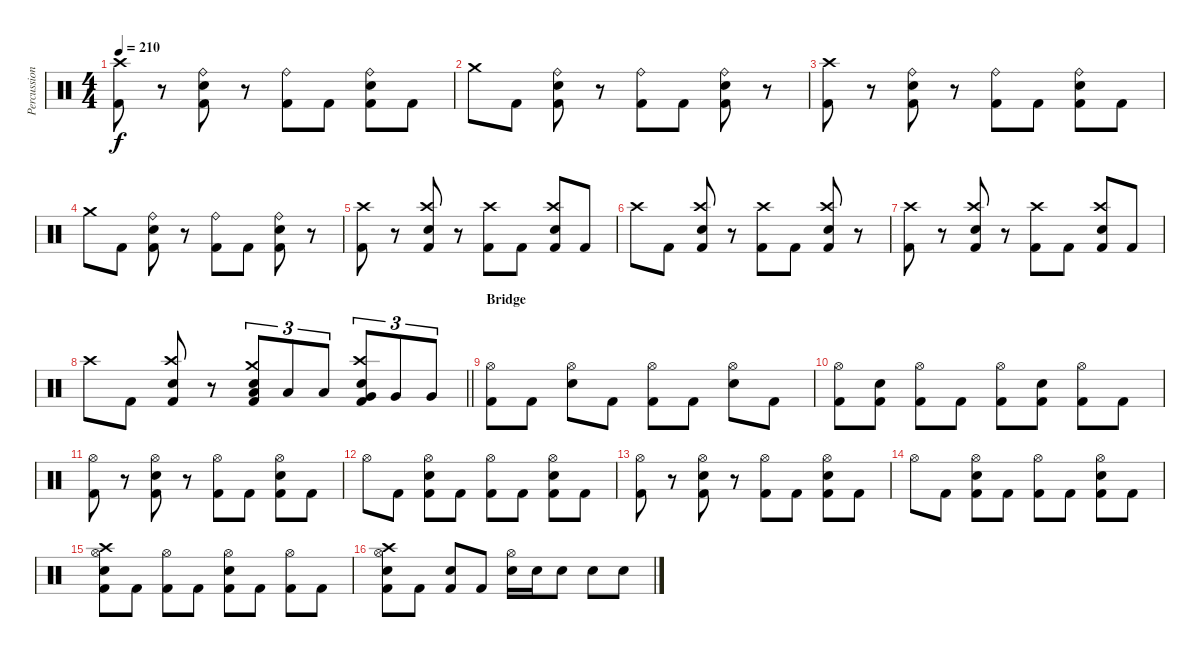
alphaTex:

\track ("Percussion" "Percussion") {instrument percussion}
\staff {score}
\articulation defaults
\ts (4 4)
\tempo 210
\clef neutral
\ks c
("Kick (hit) 2" "Crash high (hit)").8{dy f} r.8 ("Kick (hit) 2" "Electric Snare (hit)" "Ride (bell)").8 r.8 ("Kick (hit) 2" "Ride (bell)").8 "Kick (hit) 2".8 ("Kick (hit) 2" "Electric Snare (hit)" "Ride (bell)").8 "Kick (hit) 2".8 |
"Crash medium (hit)".8 "Kick (hit) 2".8 ("Kick (hit) 2" "Electric Snare (hit)" "Ride (bell)").8 r.8 ("Kick (hit) 2" "Ride (bell)").8 "Kick (hit) 2".8 ("Kick (hit) 2" "Electric Snare (hit)" "Ride (bell)").8 r.8 |
("Kick (hit) 2" "Crash high (hit)").8 r.8 ("Kick (hit) 2" "Electric Snare (hit)" "Ride (bell)").8 r.8 ("Kick (hit) 2" "Ride (bell)").8 "Kick (hit) 2".8 ("Kick (hit) 2" "Electric Snare (hit)" "Ride (bell)").8 "Kick (hit) 2".8 |
"Crash medium (hit)".8 "Kick (hit) 2".8 ("Kick (hit) 2" "Electric Snare (hit)" "Ride (bell)").8 r.8 ("Kick (hit) 2" "Ride (bell)").8 "Kick (hit) 2".8 ("Kick (hit) 2" "Electric Snare (hit)" "Ride (bell)").8 r.8 |
("Kick (hit) 2" "Crash high (hit)").8 r.8 ("Kick (hit) 2" "Electric Snare (hit)" "Crash high (hit)").8 r.8 ("Kick (hit) 2" "Crash high (hit)").8 "Kick (hit) 2".8 ("Kick (hit) 2" "Electric Snare (hit)" "Crash high (hit)").8 "Kick (hit) 2".8 |
"Crash high (hit)".8 "Kick (hit) 2".8 ("Kick (hit) 2" "Electric Snare (hit)" "Crash high (hit)").8 r.8 ("Kick (hit) 2" "Crash high (hit)").8 "Kick (hit) 2".8 ("Kick (hit) 2" "Electric Snare (hit)" "Crash high (hit)").8 r.8 |
("Kick (hit) 2" "Crash high (hit)").8 r.8 ("Kick (hit) 2" "Electric Snare (hit)" "Crash high (hit)").8 r.8 ("Kick (hit) 2" "Crash high (hit)").8 "Kick (hit) 2".8 ("Kick (hit) 2" "Electric Snare (hit)" "Crash high (hit)").8 "Kick (hit) 2".8 |
\barLineRight lightlight "Crash high (hit)".8 "Kick (hit) 2".8
("Kick (hit) 2" "Electric Snare (hit)" "Crash high (hit)").8 r.8 ("Kick (hit) 2" "Low Tom (hit)" "Crash medium (hit)" "Electric Snare (hit)").8{tu (3 2)} "Low Tom (hit)".8{tu (3 2)} "Low Tom (hit)".8{tu (3 2)} ("Kick (hit) 2" "Very Low Tom (hit)" "Crash high (hit)" "Electric Snare (hit)").8{tu (3 2)} "Very Low Tom (hit)".8{tu (3 2)} "Very Low Tom (hit)".8{tu (3 2)} |
\section ("" "Bridge")
("Kick (hit) 2" "Hi-Hat (open)").8 "Kick (hit) 2".8 ("Electric Snare (hit)" "Hi-Hat (open)").8 "Kick (hit) 2".8 ("Kick (hit) 2" "Hi-Hat (open)").8 "Kick (hit) 2".8 ("Electric Snare (hit)" "Hi-Hat (open)").8 "Kick (hit) 2".8 |
("Kick (hit) 2" "Hi-Hat (open)").8 ("Kick (hit) 2" "Electric Snare (hit)").8 ("Kick (hit) 2" "Hi-Hat (open)").8 "Kick (hit) 2".8 ("Kick (hit) 2" "Hi-Hat (open)").8 ("Kick (hit) 2" "Electric Snare (hit)").8 ("Kick (hit) 2" "Hi-Hat (open)").8 "Kick (hit) 2".8 |
("Kick (hit) 2" "Hi-Hat (open)").8 r.8 ("Kick (hit) 2" "Electric Snare (hit)" "Hi-Hat (open)").8 r.8 ("Kick (hit) 2" "Hi-Hat (open)").8 "Kick (hit) 2".8 ("Kick (hit) 2" "Electric Snare (hit)" "Hi-Hat (open)").8 "Kick (hit) 2".8 |
"Hi-Hat (open)".8 "Kick (hit) 2".8 ("Kick (hit) 2" "Electric Snare (hit)" "Hi-Hat (open)").8 "Kick (hit) 2".8 ("Kick (hit) 2" "Hi-Hat (open)").8 "Kick (hit) 2".8 ("Kick (hit) 2" "Electric Snare (hit)" "Hi-Hat (open)").8 "Kick (hit) 2".8 |
("Kick (hit) 2" "Hi-Hat (open)").8 r.8 ("Kick (hit) 2" "Electric Snare (hit)" "Hi-Hat (open)").8 r.8 ("Kick (hit) 2" "Hi-Hat (open)").8 "Kick (hit) 2".8 ("Kick (hit) 2" "Electric Snare (hit)" "Hi-Hat (open)").8 "Kick (hit) 2".8 |
"Hi-Hat (open)".8 "Kick (hit) 2".8 ("Kick (hit) 2" "Electric Snare (hit)" "Hi-Hat (open)").8 "Kick (hit) 2".8 ("Kick (hit) 2" "Hi-Hat (open)").8 "Kick (hit) 2".8 ("Kick (hit) 2" "Electric Snare (hit)" "Hi-Hat (open)").8 "Kick (hit) 2".8 |
("Kick (hit) 2" "Electric Snare (hit)" "Hi-Hat (open)" "Crash high (hit)").8 "Kick (hit) 2".8 ("Kick (hit) 2" "Hi-Hat (open)").8 "Kick (hit) 2".8 ("Kick (hit) 2" "Electric Snare (hit)" "Hi-Hat (open)").8 "Kick (hit) 2".8 ("Kick (hit) 2" "Hi-Hat (open)").8 "Kick (hit) 2".8 |
("Kick (hit) 2" "Electric Snare (hit)" "Hi-Hat (open)" "Crash high (hit)").8 "Kick (hit) 2".8 ("Kick (hit) 2" "Electric Snare (hit)").8 "Kick (hit) 2".8 ("Electric Snare (hit)" "Hi-Hat (open)").16 "Electric Snare (hit)".16 "Electric Snare (hit)".8 "Electric Snare (hit)".8 "Electric Snare (hit)".8
